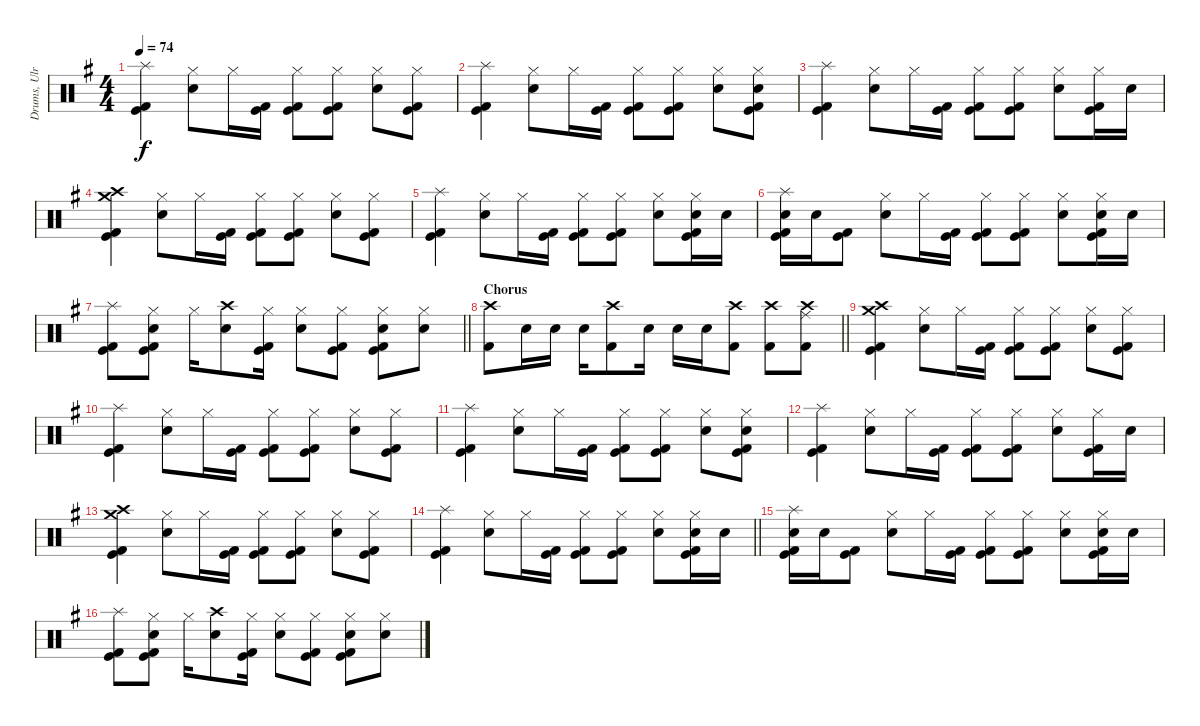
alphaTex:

\track ("Drums, Ulrich" "Drums, Ulr") {instrument percussion}
\staff {score}
\articulation defaults
\ts (4 4)
\tempo 74
\clef neutral
\ks g
("Splash (hit)" "Kick (hit) 2" "Kick (hit)").4{dy f} ("Hi-Hat (closed)" "Electric Snare (hit)").8 "Hi-Hat (closed)".16 ("Kick (hit) 2" "Kick (hit)").16 ("Hi-Hat (closed)" "Kick (hit) 2" "Kick (hit)").8 ("Hi-Hat (closed)" "Kick (hit)" "Kick (hit) 2").8 ("Hi-Hat (closed)" "Electric Snare (hit)").8 ("Hi-Hat (closed)" "Kick (hit) 2" "Kick (hit)").8 |
("Splash (hit)" "Kick (hit) 2" "Kick (hit)").4 ("Hi-Hat (closed)" "Electric Snare (hit)").8 "Hi-Hat (closed)".16 ("Kick (hit) 2" "Kick (hit)").16 ("Hi-Hat (closed)" "Kick (hit) 2" "Kick (hit)").8 ("Hi-Hat (closed)" "Kick (hit)" "Kick (hit) 2").8 ("Hi-Hat (closed)" "Electric Snare (hit)").8 ("Hi-Hat (closed)" "Electric Snare (hit)" "Kick (hit) 2" "Kick (hit)").8 |
("Splash (hit)" "Kick (hit) 2" "Kick (hit)").4 ("Hi-Hat (closed)" "Electric Snare (hit)").8 "Hi-Hat (closed)".16 ("Kick (hit) 2" "Kick (hit)").16 ("Hi-Hat (closed)" "Kick (hit) 2" "Kick (hit)").8 ("Hi-Hat (closed)" "Kick (hit)" "Kick (hit) 2").8 ("Hi-Hat (closed)" "Electric Snare (hit)").8 ("Hi-Hat (closed)" "Kick (hit) 2" "Kick (hit)").16 "Electric Snare (hit)".16 |
("Crash medium (hit)" "Crash high (hit)" "Kick (hit) 2" "Kick (hit)").4 ("Hi-Hat (closed)" "Electric Snare (hit)").8 "Hi-Hat (closed)".16 ("Kick (hit) 2" "Kick (hit)").16 ("Hi-Hat (closed)" "Kick (hit) 2" "Kick (hit)").8 ("Hi-Hat (closed)" "Kick (hit)" "Kick (hit) 2").8 ("Hi-Hat (closed)" "Electric Snare (hit)").8 ("Hi-Hat (closed)" "Kick (hit) 2" "Kick (hit)").8 |
("Splash (hit)" "Kick (hit) 2" "Kick (hit)").4 ("Hi-Hat (closed)" "Electric Snare (hit)").8 "Hi-Hat (closed)".16 ("Kick (hit) 2" "Kick (hit)").16 ("Hi-Hat (closed)" "Kick (hit) 2" "Kick (hit)").8 ("Hi-Hat (closed)" "Kick (hit)" "Kick (hit) 2").8 ("Hi-Hat (closed)" "Electric Snare (hit)").8 ("Hi-Hat (closed)" "Electric Snare (hit)" "Kick (hit) 2" "Kick (hit)").16 "Electric Snare (hit)".16 |
("Splash (hit)" "Electric Snare (hit)" "Kick (hit) 2" "Kick (hit)").16 "Electric Snare (hit)".16 ("Kick (hit) 2" "Kick (hit)").8 ("Hi-Hat (closed)" "Electric Snare (hit)").8 "Hi-Hat (closed)".16 ("Kick (hit) 2" "Kick (hit)").16 ("Hi-Hat (closed)" "Kick (hit) 2" "Kick (hit)").8 ("Hi-Hat (closed)" "Kick (hit)" "Kick (hit) 2").8 ("Hi-Hat (closed)" "Electric Snare (hit)").8 ("Hi-Hat (closed)" "Electric Snare (hit)" "Kick (hit) 2" "Kick (hit)").16 "Electric Snare (hit)".16 |
\barLineRight lightlight
("Splash (hit)" "Kick (hit) 2" "Kick (hit)").8 ("Hi-Hat (closed)" "Electric Snare (hit)" "Kick (hit) 2" "Kick (hit)").8 "Hi-Hat (closed)".16 ("Crash high (hit)" "Electric Snare (hit)").8 ("Hi-Hat (closed)" "Kick (hit)" "Kick (hit) 2").16 ("Hi-Hat (closed)" "Electric Snare (hit)").8 ("Hi-Hat (closed)" "Kick (hit) 2" "Kick (hit)").8 ("Hi-Hat (closed)" "Electric Snare (hit)" "Kick (hit)" "Kick (hit) 2").8 ("Hi-Hat (closed)" "Electric Snare (hit)").8 |
\section ("" "Chorus")
\barLineRight lightlight
("Crash high (hit)" "Kick (hit) 2").8 "Snare (hit) 2".16 "Snare (hit) 2".16 "Snare (hit) 2".16 ("Crash high (hit)" "Kick (hit) 2").8 "Snare (hit) 2".16 "Snare (hit) 2".16 "Snare (hit) 2".16 ("Crash high (hit)" "Kick (hit) 2").8 ("Crash high (hit)" "Kick (hit) 2").8 ("Ride (middle)" "Crash high (hit)" "Kick (hit) 2").8 |
("Crash medium (hit)" "Crash high (hit)" "Kick (hit) 2" "Kick (hit)").4 ("Hi-Hat (closed)" "Electric Snare (hit)").8 "Hi-Hat (closed)".16 ("Kick (hit) 2" "Kick (hit)").16 ("Hi-Hat (closed)" "Kick (hit) 2" "Kick (hit)").8 ("Hi-Hat (closed)" "Kick (hit)" "Kick (hit) 2").8 ("Hi-Hat (closed)" "Electric Snare (hit)").8 ("Hi-Hat (closed)" "Kick (hit) 2" "Kick (hit)").8 |
("Splash (hit)" "Kick (hit) 2" "Kick (hit)").4 ("Hi-Hat (closed)" "Electric Snare (hit)").8 "Hi-Hat (closed)".16 ("Kick (hit) 2" "Kick (hit)").16 ("Hi-Hat (closed)" "Kick (hit) 2" "Kick (hit)").8 ("Hi-Hat (closed)" "Kick (hit)" "Kick (hit) 2").8 ("Hi-Hat (closed)" "Electric Snare (hit)").8 ("Hi-Hat (closed)" "Kick (hit) 2" "Kick (hit)").8 |
("Splash (hit)" "Kick (hit) 2" "Kick (hit)").4 ("Hi-Hat (closed)" "Electric Snare (hit)").8 "Hi-Hat (closed)".16 ("Kick (hit) 2" "Kick (hit)").16 ("Hi-Hat (closed)" "Kick (hit) 2" "Kick (hit)").8 ("Hi-Hat (closed)" "Kick (hit)" "Kick (hit) 2").8 ("Hi-Hat (closed)" "Electric Snare (hit)").8 ("Hi-Hat (closed)" "Electric Snare (hit)" "Kick (hit) 2" "Kick (hit)").8 |
("Splash (hit)" "Kick (hit) 2" "Kick (hit)").4 ("Hi-Hat (closed)" "Electric Snare (hit)").8 "Hi-Hat (closed)".16 ("Kick (hit) 2" "Kick (hit)").16 ("Hi-Hat (closed)" "Kick (hit) 2" "Kick (hit)").8 ("Hi-Hat (closed)" "Kick (hit)" "Kick (hit) 2").8 ("Hi-Hat (closed)" "Electric Snare (hit)").8 ("Hi-Hat (closed)" "Kick (hit) 2" "Kick (hit)").16 "Electric Snare (hit)".16 |
("Crash medium (hit)" "Crash high (hit)" "Kick (hit) 2" "Kick (hit)").4 ("Hi-Hat (closed)" "Electric Snare (hit)").8 "Hi-Hat (closed)".16 ("Kick (hit) 2" "Kick (hit)").16 ("Hi-Hat (closed)" "Kick (hit) 2" "Kick (hit)").8 ("Hi-Hat (closed)" "Kick (hit)" "Kick (hit) 2").8 ("Hi-Hat (closed)" "Electric Snare (hit)").8 ("Hi-Hat (closed)" "Kick (hit) 2" "Kick (hit)").8 |
\barLineRight lightlight
("Splash (hit)" "Kick (hit) 2" "Kick (hit)").4 ("Hi-Hat (closed)" "Electric Snare (hit)").8 "Hi-Hat (closed)".16 ("Kick (hit) 2" "Kick (hit)").16 ("Hi-Hat (closed)" "Kick (hit) 2" "Kick (hit)").8 ("Hi-Hat (closed)" "Kick (hit)" "Kick (hit) 2").8 ("Hi-Hat (closed)" "Electric Snare (hit)").8 ("Hi-Hat (closed)" "Electric Snare (hit)" "Kick (hit) 2" "Kick (hit)").16 "Electric Snare (hit)".16 |
("Splash (hit)" "Electric Snare (hit)" "Kick (hit) 2" "Kick (hit)").16 "Electric Snare (hit)".16 ("Kick (hit) 2" "Kick (hit)").8 ("Hi-Hat (closed)" "Electric Snare (hit)").8 "Hi-Hat (closed)".16 ("Kick (hit) 2" "Kick (hit)").16 ("Hi-Hat (closed)" "Kick (hit) 2" "Kick (hit)").8 ("Hi-Hat (closed)" "Kick (hit)" "Kick (hit) 2").8 ("Hi-Hat (closed)" "Electric Snare (hit)").8 ("Hi-Hat (closed)" "Electric Snare (hit)" "Kick (hit) 2" "Kick (hit)").16 "Electric Snare (hit)".16 |
("Splash (hit)" "Kick (hit) 2" "Kick (hit)").8 ("Hi-Hat (closed)" "Electric Snare (hit)" "Kick (hit) 2" "Kick (hit)").8 "Hi-Hat (closed)".16 ("Crash high (hit)" "Electric Snare (hit)").8 ("Hi-Hat (closed)" "Kick (hit)" "Kick (hit) 2").16 ("Hi-Hat (closed)" "Electric Snare (hit)").8 ("Hi-Hat (closed)" "Kick (hit) 2" "Kick (hit)").8 ("Hi-Hat (closed)" "Electric Snare (hit)" "Kick (hit)" "Kick (hit) 2").8 ("Hi-Hat (closed)" "Electric Snare (hit)").8
